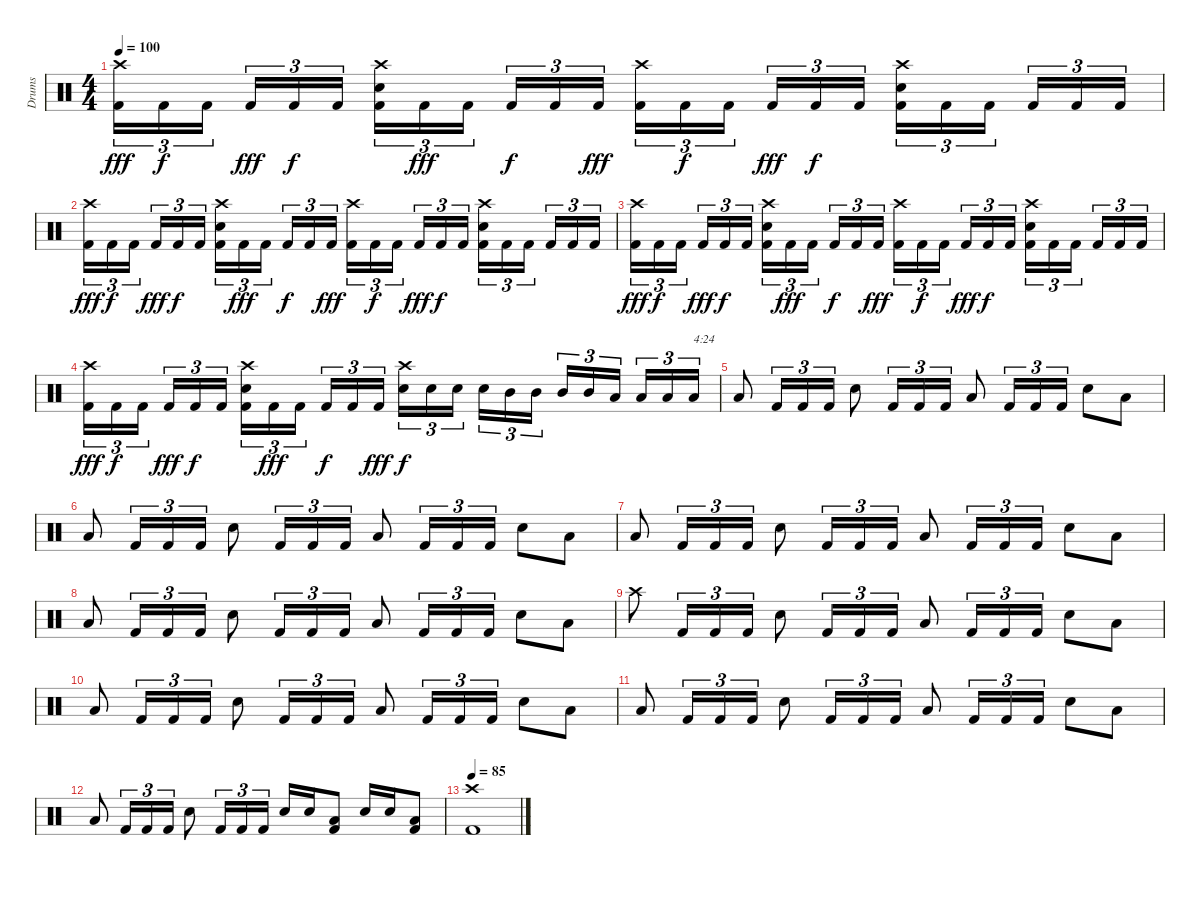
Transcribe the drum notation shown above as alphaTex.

\track ("Drums" "Drums") {instrument percussion}
\staff {score}
\articulation defaults
\ts (4 4)
\tempo 100
\clef neutral
\ks c
("Crash high (hit)" "Kick (hit) 2").16{tu (3 2) dy fff} "Kick (hit) 2".16{tu (3 2) dy f} "Kick (hit) 2".16{tu (3 2)} "Kick (hit) 2".16{tu (3 2) dy fff} "Kick (hit) 2".16{tu (3 2) dy f} "Kick (hit) 2".16{tu (3 2)} ("Crash high (hit)" "Electric Snare (hit)" "Kick (hit) 2").16{tu (3 2)} "Kick (hit) 2".16{tu (3 2) dy fff} "Kick (hit) 2".16{tu (3 2)} "Kick (hit) 2".16{tu (3 2) dy f} "Kick (hit) 2".16{tu (3 2)} "Kick (hit) 2".16{tu (3 2) dy fff} ("Crash high (hit)" "Kick (hit) 2").16{tu (3 2)} "Kick (hit) 2".16{tu (3 2) dy f} "Kick (hit) 2".16{tu (3 2)} "Kick (hit) 2".16{tu (3 2) dy fff} "Kick (hit) 2".16{tu (3 2) dy f} "Kick (hit) 2".16{tu (3 2)} ("Crash high (hit)" "Electric Snare (hit)" "Kick (hit) 2").16{tu (3 2)} "Kick (hit) 2".16{tu (3 2)} "Kick (hit) 2".16{tu (3 2)} "Kick (hit) 2".16{tu (3 2)} "Kick (hit) 2".16{tu (3 2)} "Kick (hit) 2".16{tu (3 2)} |
("Crash high (hit)" "Kick (hit) 2").16{tu (3 2) dy fff} "Kick (hit) 2".16{tu (3 2) dy f} "Kick (hit) 2".16{tu (3 2)} "Kick (hit) 2".16{tu (3 2) dy fff} "Kick (hit) 2".16{tu (3 2) dy f} "Kick (hit) 2".16{tu (3 2)} ("Crash high (hit)" "Electric Snare (hit)" "Kick (hit) 2").16{tu (3 2)} "Kick (hit) 2".16{tu (3 2) dy fff} "Kick (hit) 2".16{tu (3 2)} "Kick (hit) 2".16{tu (3 2) dy f} "Kick (hit) 2".16{tu (3 2)} "Kick (hit) 2".16{tu (3 2) dy fff} ("Crash high (hit)" "Kick (hit) 2").16{tu (3 2)} "Kick (hit) 2".16{tu (3 2) dy f} "Kick (hit) 2".16{tu (3 2)} "Kick (hit) 2".16{tu (3 2) dy fff} "Kick (hit) 2".16{tu (3 2) dy f} "Kick (hit) 2".16{tu (3 2)} ("Crash high (hit)" "Electric Snare (hit)" "Kick (hit) 2").16{tu (3 2)} "Kick (hit) 2".16{tu (3 2)} "Kick (hit) 2".16{tu (3 2)} "Kick (hit) 2".16{tu (3 2)} "Kick (hit) 2".16{tu (3 2)} "Kick (hit) 2".16{tu (3 2)} |
("Crash high (hit)" "Kick (hit) 2").16{tu (3 2) dy fff} "Kick (hit) 2".16{tu (3 2) dy f} "Kick (hit) 2".16{tu (3 2)} "Kick (hit) 2".16{tu (3 2) dy fff} "Kick (hit) 2".16{tu (3 2) dy f} "Kick (hit) 2".16{tu (3 2)} ("Crash high (hit)" "Electric Snare (hit)" "Kick (hit) 2").16{tu (3 2)} "Kick (hit) 2".16{tu (3 2) dy fff} "Kick (hit) 2".16{tu (3 2)} "Kick (hit) 2".16{tu (3 2) dy f} "Kick (hit) 2".16{tu (3 2)} "Kick (hit) 2".16{tu (3 2) dy fff} ("Crash high (hit)" "Kick (hit) 2").16{tu (3 2)} "Kick (hit) 2".16{tu (3 2) dy f} "Kick (hit) 2".16{tu (3 2)} "Kick (hit) 2".16{tu (3 2) dy fff} "Kick (hit) 2".16{tu (3 2) dy f} "Kick (hit) 2".16{tu (3 2)} ("Crash high (hit)" "Electric Snare (hit)" "Kick (hit) 2").16{tu (3 2)} "Kick (hit) 2".16{tu (3 2)} "Kick (hit) 2".16{tu (3 2)} "Kick (hit) 2".16{tu (3 2)} "Kick (hit) 2".16{tu (3 2)} "Kick (hit) 2".16{tu (3 2)} |
("Crash high (hit)" "Kick (hit) 2").16{tu (3 2) dy fff} "Kick (hit) 2".16{tu (3 2) dy f} "Kick (hit) 2".16{tu (3 2)} "Kick (hit) 2".16{tu (3 2) dy fff} "Kick (hit) 2".16{tu (3 2) dy f} "Kick (hit) 2".16{tu (3 2)} ("Crash high (hit)" "Electric Snare (hit)" "Kick (hit) 2").16{tu (3 2)} "Kick (hit) 2".16{tu (3 2) dy fff} "Kick (hit) 2".16{tu (3 2)} "Kick (hit) 2".16{tu (3 2) dy f} "Kick (hit) 2".16{tu (3 2)} "Kick (hit) 2".16{tu (3 2) dy fff} ("Crash high (hit)" "Electric Snare (hit)").16{tu (3 2) dy f} "Electric Snare (hit)".16{tu (3 2)} "Electric Snare (hit)".16{tu (3 2)} "Electric Snare (hit)".16{tu (3 2)} "Mid Tom (hit)".16{tu (3 2)} "Mid Tom (hit)".16{tu (3 2)} "Mid Tom (hit)".16{tu (3 2)} "Mid Tom (hit)".16{tu (3 2)} "Low Tom (hit)".16{tu (3 2)} "Low Tom (hit)".16{tu (3 2)} "Low Tom (hit)".16{tu (3 2)} "Low Tom (hit)".16{tu (3 2) txt "4:24"} |
"Low Tom (hit)".8 "Kick (hit) 2".16{tu (3 2)} "Kick (hit) 2".16{tu (3 2)} "Kick (hit) 2".16{tu (3 2)} "Electric Snare (hit)".8 "Kick (hit) 2".16{tu (3 2)} "Kick (hit) 2".16{tu (3 2)} "Kick (hit) 2".16{tu (3 2)} "Low Tom (hit)".8 "Kick (hit) 2".16{tu (3 2)} "Kick (hit) 2".16{tu (3 2)} "Kick (hit) 2".16{tu (3 2)} "Electric Snare (hit)".8 "Low Tom (hit)".8 |
"Low Tom (hit)".8 "Kick (hit) 2".16{tu (3 2)} "Kick (hit) 2".16{tu (3 2)} "Kick (hit) 2".16{tu (3 2)} "Electric Snare (hit)".8 "Kick (hit) 2".16{tu (3 2)} "Kick (hit) 2".16{tu (3 2)} "Kick (hit) 2".16{tu (3 2)} "Low Tom (hit)".8 "Kick (hit) 2".16{tu (3 2)} "Kick (hit) 2".16{tu (3 2)} "Kick (hit) 2".16{tu (3 2)} "Electric Snare (hit)".8 "Low Tom (hit)".8 |
"Low Tom (hit)".8 "Kick (hit) 2".16{tu (3 2)} "Kick (hit) 2".16{tu (3 2)} "Kick (hit) 2".16{tu (3 2)} "Electric Snare (hit)".8 "Kick (hit) 2".16{tu (3 2)} "Kick (hit) 2".16{tu (3 2)} "Kick (hit) 2".16{tu (3 2)} "Low Tom (hit)".8 "Kick (hit) 2".16{tu (3 2)} "Kick (hit) 2".16{tu (3 2)} "Kick (hit) 2".16{tu (3 2)} "Electric Snare (hit)".8 "Low Tom (hit)".8 |
"Low Tom (hit)".8 "Kick (hit) 2".16{tu (3 2)} "Kick (hit) 2".16{tu (3 2)} "Kick (hit) 2".16{tu (3 2)} "Electric Snare (hit)".8 "Kick (hit) 2".16{tu (3 2)} "Kick (hit) 2".16{tu (3 2)} "Kick (hit) 2".16{tu (3 2)} "Low Tom (hit)".8 "Kick (hit) 2".16{tu (3 2)} "Kick (hit) 2".16{tu (3 2)} "Kick (hit) 2".16{tu (3 2)} "Electric Snare (hit)".8 "Low Tom (hit)".8 |
"Crash high (hit)".8 "Kick (hit) 2".16{tu (3 2)} "Kick (hit) 2".16{tu (3 2)} "Kick (hit) 2".16{tu (3 2)} "Electric Snare (hit)".8 "Kick (hit) 2".16{tu (3 2)} "Kick (hit) 2".16{tu (3 2)} "Kick (hit) 2".16{tu (3 2)} "Low Tom (hit)".8 "Kick (hit) 2".16{tu (3 2)} "Kick (hit) 2".16{tu (3 2)} "Kick (hit) 2".16{tu (3 2)} "Electric Snare (hit)".8 "Low Tom (hit)".8 |
"Low Tom (hit)".8 "Kick (hit) 2".16{tu (3 2)} "Kick (hit) 2".16{tu (3 2)} "Kick (hit) 2".16{tu (3 2)} "Electric Snare (hit)".8 "Kick (hit) 2".16{tu (3 2)} "Kick (hit) 2".16{tu (3 2)} "Kick (hit) 2".16{tu (3 2)} "Low Tom (hit)".8 "Kick (hit) 2".16{tu (3 2)} "Kick (hit) 2".16{tu (3 2)} "Kick (hit) 2".16{tu (3 2)} "Electric Snare (hit)".8 "Low Tom (hit)".8 |
"Low Tom (hit)".8 "Kick (hit) 2".16{tu (3 2)} "Kick (hit) 2".16{tu (3 2)} "Kick (hit) 2".16{tu (3 2)} "Electric Snare (hit)".8 "Kick (hit) 2".16{tu (3 2)} "Kick (hit) 2".16{tu (3 2)} "Kick (hit) 2".16{tu (3 2)} "Low Tom (hit)".8 "Kick (hit) 2".16{tu (3 2)} "Kick (hit) 2".16{tu (3 2)} "Kick (hit) 2".16{tu (3 2)} "Electric Snare (hit)".8 "Low Tom (hit)".8 |
"Low Tom (hit)".8 "Kick (hit) 2".16{tu (3 2)} "Kick (hit) 2".16{tu (3 2)} "Kick (hit) 2".16{tu (3 2)} "Electric Snare (hit)".8 "Kick (hit) 2".16{tu (3 2)} "Kick (hit) 2".16{tu (3 2)} "Kick (hit) 2".16{tu (3 2)} "Electric Snare (hit)".16 "Electric Snare (hit)".16 ("Low Tom (hit)" "Kick (hit) 2").8 "Electric Snare (hit)".16 "Electric Snare (hit)".16 ("Low Tom (hit)" "Kick (hit) 2").8 |
\tempo 85
("Crash high (hit)" "Kick (hit) 2").1
